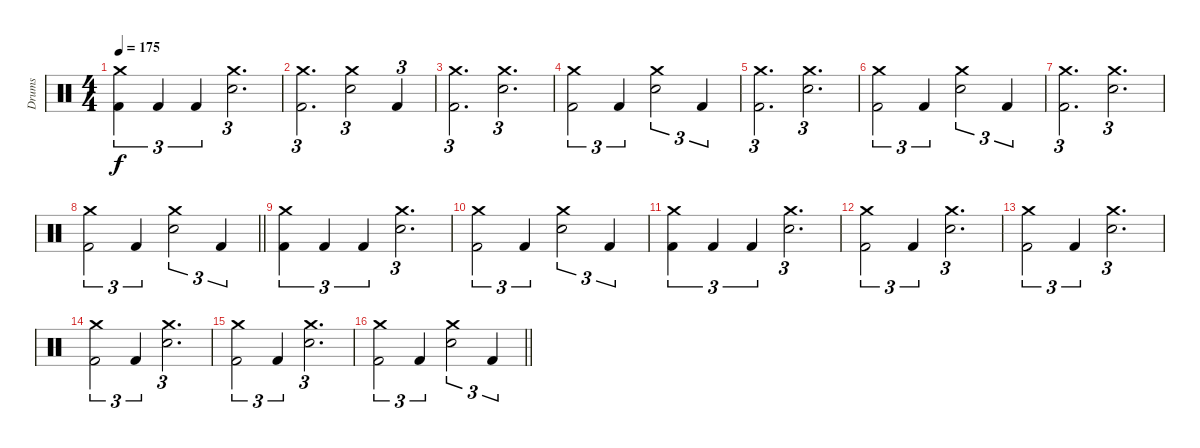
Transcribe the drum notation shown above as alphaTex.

\track ("Drums" "Drums") {instrument percussion}
\staff {score}
\articulation defaults
\ts (4 4)
\section ("" "")
\tempo 175
\clef neutral
\ks c
("Kick (hit) 2" "Crash medium (hit)").4{tu (3 2) dy f} "Kick (hit) 2".4{tu (3 2)} "Kick (hit) 2".4{tu (3 2)} ("Snare (hit) 2" "Crash medium (hit)").2{d tu (3 2)} |
("Kick (hit) 2" "Crash medium (hit)").2{d tu (3 2)} ("Snare (hit) 2" "Crash medium (hit)").2{tu (3 2)} "Kick (hit) 2".4{tu (3 2)} |
("Kick (hit) 2" "Crash medium (hit)").2{d tu (3 2)} ("Snare (hit) 2" "Crash medium (hit)").2{d tu (3 2)} |
("Kick (hit) 2" "Crash medium (hit)").2{tu (3 2)} "Kick (hit) 2".4{tu (3 2)} ("Snare (hit) 2" "Crash medium (hit)").2{tu (3 2)} "Kick (hit) 2".4{tu (3 2)} |
("Kick (hit) 2" "Crash medium (hit)").2{d tu (3 2)} ("Snare (hit) 2" "Crash medium (hit)").2{d tu (3 2)} |
("Kick (hit) 2" "Crash medium (hit)").2{tu (3 2)} "Kick (hit) 2".4{tu (3 2)} ("Snare (hit) 2" "Crash medium (hit)").2{tu (3 2)} "Kick (hit) 2".4{tu (3 2)} |
("Kick (hit) 2" "Crash medium (hit)").2{d tu (3 2)} ("Snare (hit) 2" "Crash medium (hit)").2{d tu (3 2)} |
\barLineRight lightlight
("Kick (hit) 2" "Crash medium (hit)").2{tu (3 2)} "Kick (hit) 2".4{tu (3 2)} ("Snare (hit) 2" "Crash medium (hit)").2{tu (3 2)} "Kick (hit) 2".4{tu (3 2)} |
\section ("" "")
("Kick (hit) 2" "Crash medium (hit)").4{tu (3 2)} "Kick (hit) 2".4{tu (3 2)} "Kick (hit) 2".4{tu (3 2)} ("Snare (hit) 2" "Crash medium (hit)").2{d tu (3 2)} |
("Kick (hit) 2" "Crash medium (hit)").2{tu (3 2)} "Kick (hit) 2".4{tu (3 2)} ("Snare (hit) 2" "Crash medium (hit)").2{tu (3 2)} "Kick (hit) 2".4{tu (3 2)} |
("Kick (hit) 2" "Crash medium (hit)").4{tu (3 2)} "Kick (hit) 2".4{tu (3 2)} "Kick (hit) 2".4{tu (3 2)} ("Snare (hit) 2" "Crash medium (hit)").2{d tu (3 2)} |
("Kick (hit) 2" "Crash medium (hit)").2{tu (3 2)} "Kick (hit) 2".4{tu (3 2)} ("Snare (hit) 2" "Crash medium (hit)").2{d tu (3 2)} |
("Kick (hit) 2" "Crash medium (hit)").2{tu (3 2)} "Kick (hit) 2".4{tu (3 2)} ("Snare (hit) 2" "Crash medium (hit)").2{d tu (3 2)} |
("Kick (hit) 2" "Crash medium (hit)").2{tu (3 2)} "Kick (hit) 2".4{tu (3 2)} ("Snare (hit) 2" "Crash medium (hit)").2{d tu (3 2)} |
("Kick (hit) 2" "Crash medium (hit)").2{tu (3 2)} "Kick (hit) 2".4{tu (3 2)} ("Snare (hit) 2" "Crash medium (hit)").2{d tu (3 2)} |
\barLineRight lightlight
("Kick (hit) 2" "Crash medium (hit)").2{tu (3 2)} "Kick (hit) 2".4{tu (3 2)} ("Snare (hit) 2" "Crash medium (hit)").2{tu (3 2)} "Kick (hit) 2".4{tu (3 2)}
